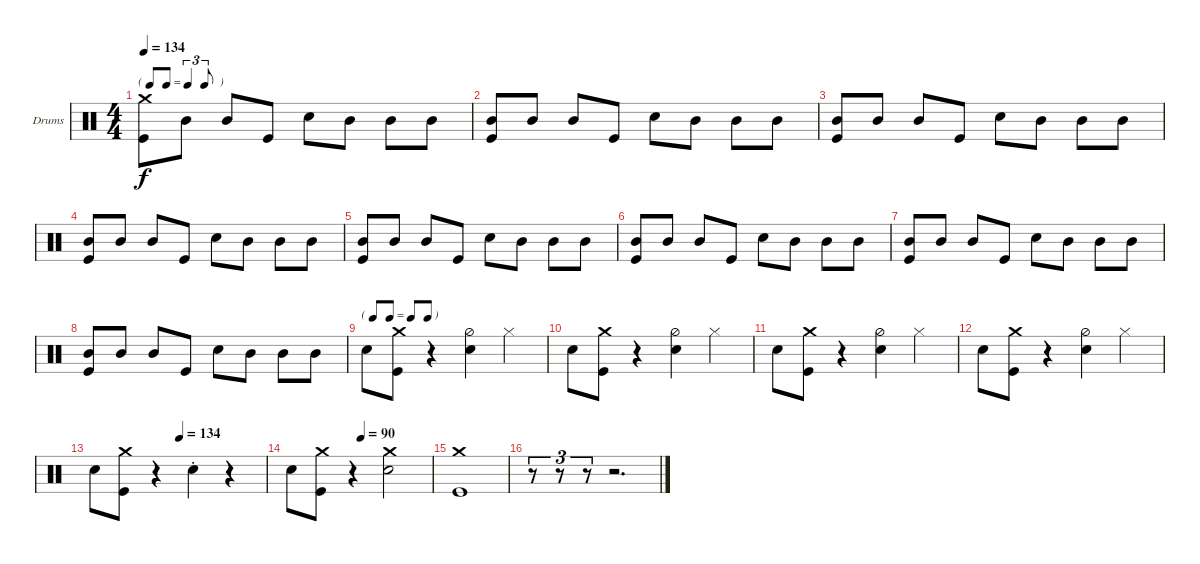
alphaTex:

\defaultSystemsLayout 4
\bracketExtendMode groupsimilarinstruments
\firstSystemTrackNameOrientation horizontal
\otherSystemsTrackNameOrientation horizontal
\track ("Drumkit" "Drums") {instrument percussion}
\staff {score}
\articulation defaults
\ts (4 4)
\tf triplet8th
\tempo 134
\clef neutral
\ks c
("Kick (hit)" "Crash medium (hit)").8{dy f} "Mid Tom (hit)".8 "Mid Tom (hit)".8 "Kick (hit)".8 "Snare (hit) 2".8 "Mid Tom (hit)".8 "Mid Tom (hit)".8 "Mid Tom (hit)".8 |
("Kick (hit)" "Mid Tom (hit)").8 "Mid Tom (hit)".8 "Mid Tom (hit)".8 "Kick (hit)".8 "Snare (hit) 2".8 "Mid Tom (hit)".8 "Mid Tom (hit)".8 "Mid Tom (hit)".8 |
("Kick (hit)" "Mid Tom (hit)").8 "Mid Tom (hit)".8 "Mid Tom (hit)".8 "Kick (hit)".8 "Snare (hit) 2".8 "Mid Tom (hit)".8 "Mid Tom (hit)".8 "Mid Tom (hit)".8 |
("Kick (hit)" "Mid Tom (hit)").8 "Mid Tom (hit)".8 "Mid Tom (hit)".8 "Kick (hit)".8 "Snare (hit) 2".8 "Mid Tom (hit)".8 "Mid Tom (hit)".8 "Mid Tom (hit)".8 |
("Kick (hit)" "Mid Tom (hit)").8 "Mid Tom (hit)".8 "Mid Tom (hit)".8 "Kick (hit)".8 "Snare (hit) 2".8 "Mid Tom (hit)".8 "Mid Tom (hit)".8 "Mid Tom (hit)".8 |
("Kick (hit)" "Mid Tom (hit)").8 "Mid Tom (hit)".8 "Mid Tom (hit)".8 "Kick (hit)".8 "Snare (hit) 2".8 "Mid Tom (hit)".8 "Mid Tom (hit)".8 "Mid Tom (hit)".8 |
("Kick (hit)" "Mid Tom (hit)").8 "Mid Tom (hit)".8 "Mid Tom (hit)".8 "Kick (hit)".8 "Snare (hit) 2".8 "Mid Tom (hit)".8 "Mid Tom (hit)".8 "Mid Tom (hit)".8 |
("Kick (hit)" "Mid Tom (hit)").8 "Mid Tom (hit)".8 "Mid Tom (hit)".8 "Kick (hit)".8 "Snare (hit) 2".8 "Mid Tom (hit)".8 "Mid Tom (hit)".8 "Mid Tom (hit)".8 |
\tf none "Snare (hit) 2".8
("Kick (hit)" "Crash medium (hit)").8 r.4 ("Snare (hit) 2" "Hi-Hat (half)").4 "Hi-Hat (closed)".4 |
"Snare (hit) 2".8 ("Kick (hit)" "Crash medium (hit)").8 r.4 ("Snare (hit) 2" "Hi-Hat (half)").4 "Hi-Hat (closed)".4 |
"Snare (hit) 2".8 ("Kick (hit)" "Crash medium (hit)").8 r.4 ("Snare (hit) 2" "Hi-Hat (half)").4 "Hi-Hat (closed)".4 |
"Snare (hit) 2".8 ("Kick (hit)" "Crash medium (hit)").8 r.4 ("Snare (hit) 2" "Hi-Hat (half)").4 "Hi-Hat (closed)".4 |
\tempo (134 0.5)
"Snare (hit) 2".8 ("Kick (hit)" "Crash medium (hit)").8 r.4 "Snare (hit) 2"{st}.4 r.4 |
\tempo (90 0.5)
"Snare (hit) 2".8 ("Kick (hit)" "Crash medium (hit)").8 r.4 ("Crash medium (hit)" "Snare (hit) 2").2 |
("Kick (hit)" "Crash medium (hit)").1 |
r.8{tu (3 2)} r.8{tu (3 2)} r.8{tu (3 2)} r.2{d}
